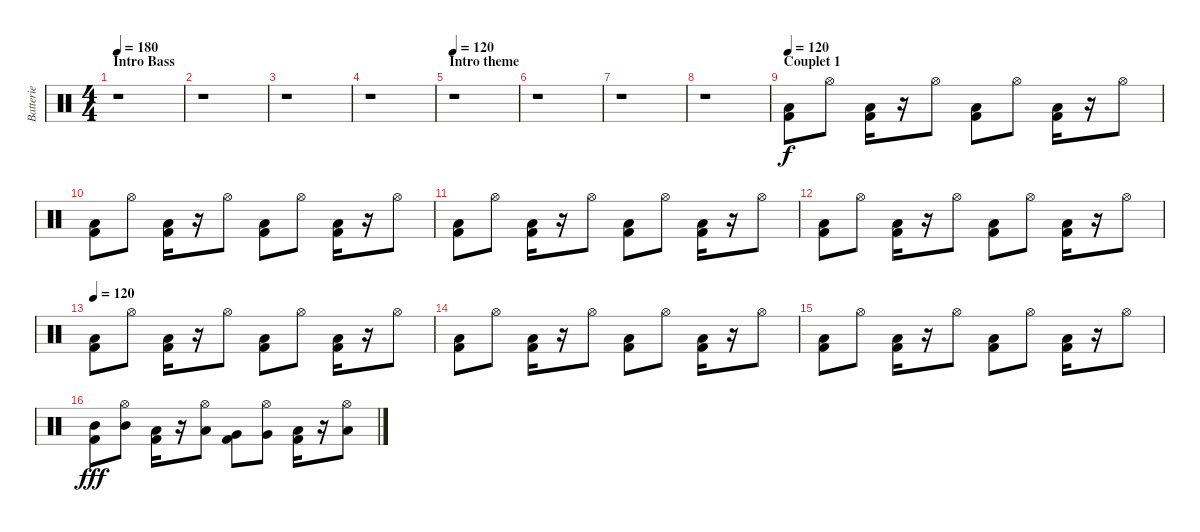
\track ("Batterie" "Batterie") {instrument percussion}
\staff {score}
\articulation defaults
\ts (4 4)
\section ("" "Intro Bass")
\tempo 180
\tempo 120
\tempo 180
\clef neutral
\ks c
r.1{dy f} |
r.1 |
r.1 |
r.1 |
\section ("" "Intro theme")
\tempo 120
r.1 |
r.1 |
r.1 |
r.1 |
\section ("" "Couplet 1")
\tempo 120
("Kick (hit) 2" "Low Floor Tom (hit)").8 "Hi-Hat (open)".8 ("Kick (hit) 2" "Low Floor Tom (hit)").16 r.16 "Hi-Hat (open)".8 ("Kick (hit) 2" "Low Floor Tom (hit)").8 "Hi-Hat (open)".8 ("Kick (hit) 2" "Low Floor Tom (hit)").16 r.16 "Hi-Hat (open)".8 |
("Kick (hit) 2" "Low Floor Tom (hit)").8 "Hi-Hat (open)".8 ("Kick (hit) 2" "Low Floor Tom (hit)").16 r.16 "Hi-Hat (open)".8 ("Kick (hit) 2" "Low Floor Tom (hit)").8 "Hi-Hat (open)".8 ("Kick (hit) 2" "Low Floor Tom (hit)").16 r.16 "Hi-Hat (open)".8 |
("Kick (hit) 2" "Low Floor Tom (hit)").8 "Hi-Hat (open)".8 ("Kick (hit) 2" "Low Floor Tom (hit)").16 r.16 "Hi-Hat (open)".8 ("Kick (hit) 2" "Low Floor Tom (hit)").8 "Hi-Hat (open)".8 ("Kick (hit) 2" "Low Floor Tom (hit)").16 r.16 "Hi-Hat (open)".8 |
("Kick (hit) 2" "Low Floor Tom (hit)").8 "Hi-Hat (open)".8 ("Kick (hit) 2" "Low Floor Tom (hit)").16 r.16 "Hi-Hat (open)".8 ("Kick (hit) 2" "Low Floor Tom (hit)").8 "Hi-Hat (open)".8 ("Kick (hit) 2" "Low Floor Tom (hit)").16 r.16 "Hi-Hat (open)".8 |
\tempo 120
("Kick (hit) 2" "Low Floor Tom (hit)").8 "Hi-Hat (open)".8 ("Kick (hit) 2" "Low Floor Tom (hit)").16 r.16 "Hi-Hat (open)".8 ("Kick (hit) 2" "Low Floor Tom (hit)").8 "Hi-Hat (open)".8 ("Kick (hit) 2" "Low Floor Tom (hit)").16 r.16 "Hi-Hat (open)".8 |
("Kick (hit) 2" "Low Floor Tom (hit)").8 "Hi-Hat (open)".8 ("Kick (hit) 2" "Low Floor Tom (hit)").16 r.16 "Hi-Hat (open)".8 ("Kick (hit) 2" "Low Floor Tom (hit)").8 "Hi-Hat (open)".8 ("Kick (hit) 2" "Low Floor Tom (hit)").16 r.16 "Hi-Hat (open)".8 |
("Kick (hit) 2" "Low Floor Tom (hit)").8 "Hi-Hat (open)".8 ("Kick (hit) 2" "Low Floor Tom (hit)").16 r.16 "Hi-Hat (open)".8 ("Kick (hit) 2" "Low Floor Tom (hit)").8 "Hi-Hat (open)".8 ("Kick (hit) 2" "Low Floor Tom (hit)").16 r.16 "Hi-Hat (open)".8 |
("Kick (hit) 2" "Mid Tom (hit)").8{dy fff} ("Hi-Hat (open)" "Mid Tom (hit)").8 ("Kick (hit) 2" "Low Tom (hit)").16 r.16 ("Hi-Hat (open)" "Low Tom (hit)").8 ("Kick (hit) 2" "Very Low Tom (hit)").8 ("Hi-Hat (open)" "Very Low Tom (hit)").8 ("Kick (hit) 2" "Low Floor Tom (hit)").16 r.16 ("Hi-Hat (open)" "Low Floor Tom (hit)").8
